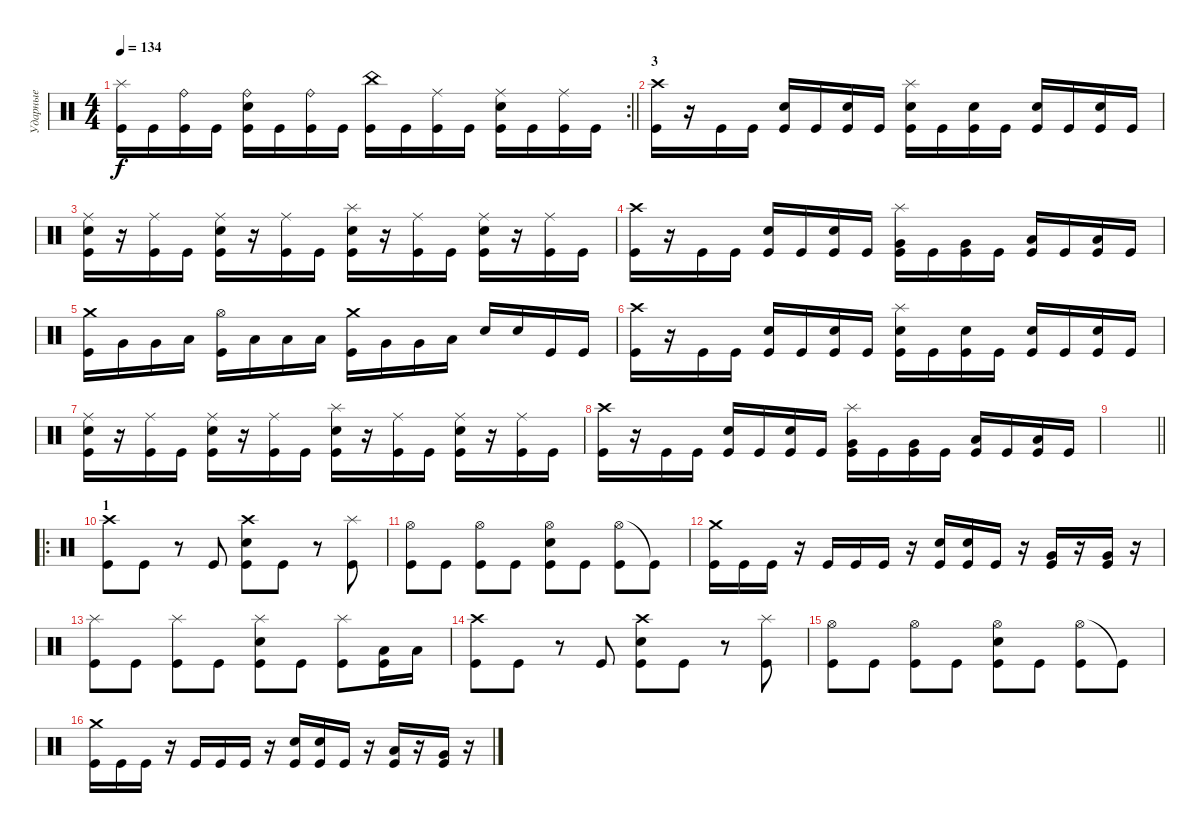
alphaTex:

\track ("Ударные" "Ударные") {instrument percussion}
\staff {score}
\articulation defaults
\rc 2
\ts (4 4)
\tempo 134
\clef neutral
\barLineRight lightlight
\ks c
("Splash (hit)" "Kick (hit)").16{dy f} "Kick (hit)".16 ("Ride (bell)" "Kick (hit)").16 "Kick (hit)".16 ("Ride (bell)" "Electric Snare (hit)" "Kick (hit)").16 "Kick (hit)".16 ("Ride (bell)" "Kick (hit)").16 "Kick (hit)".16 ("China (hit)" "Kick (hit)").16 "Kick (hit)".16 ("Ride (middle)" "Kick (hit)").16 "Kick (hit)".16 ("Ride (middle)" "Electric Snare (hit)" "Kick (hit)").16 "Kick (hit)".16 ("Ride (middle)" "Kick (hit)").16 "Kick (hit)".16 |
\section ("" "3")
("Crash high (hit)" "Kick (hit)").16 r.16 "Kick (hit)".16 "Kick (hit)".16 ("Electric Snare (hit)" "Kick (hit)").16 "Kick (hit)".16 ("Electric Snare (hit)" "Kick (hit)").16 "Kick (hit)".16 ("Splash (hit)" "Electric Snare (hit)" "Kick (hit)").16 "Kick (hit)".16 ("Electric Snare (hit)" "Kick (hit)").16 "Kick (hit)".16 ("Electric Snare (hit)" "Kick (hit)").16 "Kick (hit)".16 ("Electric Snare (hit)" "Kick (hit)").16 "Kick (hit)".16 |
("Ride (middle)" "Electric Snare (hit)" "Kick (hit)").16 r.16 ("Ride (middle)" "Kick (hit)").16 "Kick (hit)".16 ("Ride (middle)" "Electric Snare (hit)" "Kick (hit)").16 r.16 ("Ride (middle)" "Kick (hit)").16 "Kick (hit)".16 ("Splash (hit)" "Electric Snare (hit)" "Kick (hit)").16 r.16 ("Ride (middle)" "Kick (hit)").16 "Kick (hit)".16 ("Ride (middle)" "Electric Snare (hit)" "Kick (hit)").16 r.16 ("Ride (middle)" "Kick (hit)").16 "Kick (hit)".16 |
("Crash high (hit)" "Kick (hit)").16 r.16 "Kick (hit)".16 "Kick (hit)".16 ("Electric Snare (hit)" "Kick (hit)").16 "Kick (hit)".16 ("Electric Snare (hit)" "Kick (hit)").16 "Kick (hit)".16 ("Splash (hit)" "Very Low Tom (hit)" "Kick (hit)").16 "Kick (hit)".16 ("Very Low Tom (hit)" "Kick (hit)").16 "Kick (hit)".16 ("Low Tom (hit)" "Kick (hit)").16 "Kick (hit)".16 ("Low Tom (hit)" "Kick (hit)").16 "Kick (hit)".16 |
("Crash medium (hit)" "Kick (hit)").16 "Very Low Tom (hit)".16 "Very Low Tom (hit)".16 "Low Floor Tom (hit)".16 ("Hi-Hat (open)" "Kick (hit)").16 "Low Tom (hit)".16 "Low Tom (hit)".16 "Low Tom (hit)".16 ("Crash medium (hit)" "Kick (hit)").16 "Very Low Tom (hit)".16 "Very Low Tom (hit)".16 "Low Floor Tom (hit)".16 "Electric Snare (hit)".16 "Electric Snare (hit)".16 "Kick (hit)".16 "Kick (hit)".16 |
("Crash high (hit)" "Kick (hit)").16 r.16 "Kick (hit)".16 "Kick (hit)".16 ("Electric Snare (hit)" "Kick (hit)").16 "Kick (hit)".16 ("Electric Snare (hit)" "Kick (hit)").16 "Kick (hit)".16 ("Splash (hit)" "Electric Snare (hit)" "Kick (hit)").16 "Kick (hit)".16 ("Electric Snare (hit)" "Kick (hit)").16 "Kick (hit)".16 ("Electric Snare (hit)" "Kick (hit)").16 "Kick (hit)".16 ("Electric Snare (hit)" "Kick (hit)").16 "Kick (hit)".16 |
("Ride (middle)" "Electric Snare (hit)" "Kick (hit)").16 r.16 ("Ride (middle)" "Kick (hit)").16 "Kick (hit)".16 ("Ride (middle)" "Electric Snare (hit)" "Kick (hit)").16 r.16 ("Ride (middle)" "Kick (hit)").16 "Kick (hit)".16 ("Splash (hit)" "Electric Snare (hit)" "Kick (hit)").16 r.16 ("Ride (middle)" "Kick (hit)").16 "Kick (hit)".16 ("Ride (middle)" "Electric Snare (hit)" "Kick (hit)").16 r.16 ("Ride (middle)" "Kick (hit)").16 "Kick (hit)".16 |
("Crash high (hit)" "Kick (hit)").16 r.16 "Kick (hit)".16 "Kick (hit)".16 ("Electric Snare (hit)" "Kick (hit)").16 "Kick (hit)".16 ("Electric Snare (hit)" "Kick (hit)").16 "Kick (hit)".16 ("Splash (hit)" "Very Low Tom (hit)" "Kick (hit)").16 "Kick (hit)".16 ("Very Low Tom (hit)" "Kick (hit)").16 "Kick (hit)".16 ("Low Tom (hit)" "Kick (hit)").16 "Kick (hit)".16 ("Low Tom (hit)" "Kick (hit)").16 "Kick (hit)".16 |
\barLineRight lightlight
|
\ro
\section ("" "1")
("Crash high (hit)" "Kick (hit)").8 "Kick (hit)".8 r.8 "Kick (hit)".8 ("Crash high (hit)" "Electric Snare (hit)" "Kick (hit)").8 "Kick (hit)".8 r.8 ("Splash (hit)" "Kick (hit)").8 |
("Hi-Hat (open)" "Kick (hit)").8 "Kick (hit)".8 ("Hi-Hat (open)" "Kick (hit)").8 "Kick (hit)".8 ("Hi-Hat (open)" "Electric Snare (hit)" "Kick (hit)").8 "Kick (hit)".8 ("Hi-Hat (open)" "Kick (hit)").8 "Kick (hit)"{t}.8 |
("Crash medium (hit)" "Kick (hit)").16 "Kick (hit)".16 "Kick (hit)".16 r.16 "Kick (hit)".16 "Kick (hit)".16 "Kick (hit)".16 r.16 ("Electric Snare (hit)" "Kick (hit)").16 ("Electric Snare (hit)" "Kick (hit)").16 "Kick (hit)".16 r.16 ("Very Low Tom (hit)" "Kick (hit)").16 r.16 ("Very Low Tom (hit)" "Kick (hit)").16 r.16 |
("Splash (hit)" "Kick (hit)").8 "Kick (hit)".8 ("Splash (hit)" "Kick (hit)").8 "Kick (hit)".8 ("Splash (hit)" "Electric Snare (hit)" "Kick (hit)").8 "Kick (hit)".8 ("Splash (hit)" "Kick (hit)").8 ("Low Tom (hit)" "Kick (hit)").16 "Low Tom (hit)".16 |
("Crash high (hit)" "Kick (hit)").8 "Kick (hit)".8 r.8 "Kick (hit)".8 ("Crash high (hit)" "Electric Snare (hit)" "Kick (hit)").8 "Kick (hit)".8 r.8 ("Splash (hit)" "Kick (hit)").8 |
("Hi-Hat (open)" "Kick (hit)").8 "Kick (hit)".8 ("Hi-Hat (open)" "Kick (hit)").8 "Kick (hit)".8 ("Hi-Hat (open)" "Electric Snare (hit)" "Kick (hit)").8 "Kick (hit)".8 ("Hi-Hat (open)" "Kick (hit)").8 "Kick (hit)"{t}.8 |
("Crash medium (hit)" "Kick (hit)").16 "Kick (hit)".16 "Kick (hit)".16 r.16 "Kick (hit)".16 "Kick (hit)".16 "Kick (hit)".16 r.16 ("Electric Snare (hit)" "Kick (hit)").16 ("Electric Snare (hit)" "Kick (hit)").16 "Kick (hit)".16 r.16 ("Low Tom (hit)" "Kick (hit)").16 r.16 ("Very Low Tom (hit)" "Kick (hit)").16 r.16
